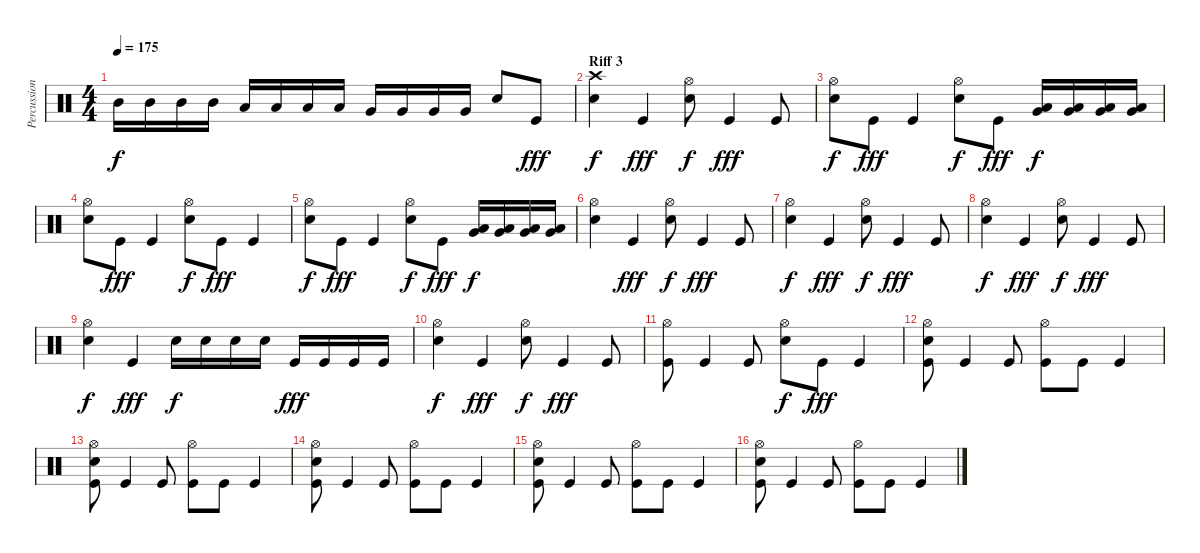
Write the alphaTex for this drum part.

\track ("Percussions" "Percussion") {instrument percussion}
\staff {score}
\articulation defaults
\ts (4 4)
\tempo 175
\clef neutral
\ks c "Mid Tom (hit)".16{dy f} "Mid Tom (hit)".16 "Mid Tom (hit)".16 "Mid Tom (hit)".16 "Low Tom (hit)".16 "Low Tom (hit)".16 "Low Tom (hit)".16 "Low Tom (hit)".16 "Very Low Tom (hit)".16 "Very Low Tom (hit)".16 "Very Low Tom (hit)".16 "Very Low Tom (hit)".16 "Electric Snare (hit)".8 "Kick (hit)".8{dy fff}
|
\section ("" "Riff 3")
("Crash high (hit)" "Electric Snare (hit)").4{dy f} "Kick (hit)".4{dy fff} ("Hi-Hat (open)" "Electric Snare (hit)").8{dy f} "Kick (hit)".4{dy fff} "Kick (hit)".8 |
("Hi-Hat (open)" "Electric Snare (hit)").8{dy f} "Kick (hit)".8{dy fff} "Kick (hit)".4 ("Hi-Hat (open)" "Electric Snare (hit)").8{dy f} "Kick (hit)".8{dy fff} ("Low Floor Tom (hit)" "Very Low Tom (hit)").16{dy f} ("Low Floor Tom (hit)" "Very Low Tom (hit)").16 ("Low Floor Tom (hit)" "Very Low Tom (hit)").16 ("Low Floor Tom (hit)" "Very Low Tom (hit)").16 |
("Hi-Hat (open)" "Electric Snare (hit)").8 "Kick (hit)".8{dy fff} "Kick (hit)".4 ("Hi-Hat (open)" "Electric Snare (hit)").8{dy f} "Kick (hit)".8{dy fff} "Kick (hit)".4 |
("Hi-Hat (open)" "Electric Snare (hit)").8{dy f} "Kick (hit)".8{dy fff} "Kick (hit)".4 ("Hi-Hat (open)" "Electric Snare (hit)").8{dy f} "Kick (hit)".8{dy fff} ("Low Floor Tom (hit)" "Very Low Tom (hit)").16{dy f} ("Low Floor Tom (hit)" "Very Low Tom (hit)").16 ("Low Floor Tom (hit)" "Very Low Tom (hit)").16 ("Low Floor Tom (hit)" "Very Low Tom (hit)").16 |
("Hi-Hat (open)" "Electric Snare (hit)").4 "Kick (hit)".4{dy fff} ("Hi-Hat (open)" "Electric Snare (hit)").8{dy f} "Kick (hit)".4{dy fff} "Kick (hit)".8 |
("Hi-Hat (open)" "Electric Snare (hit)").4{dy f} "Kick (hit)".4{dy fff} ("Hi-Hat (open)" "Electric Snare (hit)").8{dy f} "Kick (hit)".4{dy fff} "Kick (hit)".8 |
("Hi-Hat (open)" "Electric Snare (hit)").4{dy f} "Kick (hit)".4{dy fff} ("Hi-Hat (open)" "Electric Snare (hit)").8{dy f} "Kick (hit)".4{dy fff} "Kick (hit)".8 |
("Hi-Hat (open)" "Electric Snare (hit)").4{dy f} "Kick (hit)".4{dy fff} "Electric Snare (hit)".16{dy f} "Electric Snare (hit)".16 "Electric Snare (hit)".16 "Electric Snare (hit)".16 "Kick (hit)".16{dy fff} "Kick (hit)".16 "Kick (hit)".16 "Kick (hit)".16 |
("Hi-Hat (open)" "Electric Snare (hit)").4{dy f} "Kick (hit)".4{dy fff} ("Hi-Hat (open)" "Electric Snare (hit)").8{dy f} "Kick (hit)".4{dy fff} "Kick (hit)".8 |
("Hi-Hat (open)" "Kick (hit)").8 "Kick (hit)".4 "Kick (hit)".8 ("Hi-Hat (open)" "Electric Snare (hit)").8{dy f} "Kick (hit)".8{dy fff} "Kick (hit)".4 |
("Hi-Hat (open)" "Electric Snare (hit)" "Kick (hit)").8 "Kick (hit)".4 "Kick (hit)".8 ("Hi-Hat (open)" "Kick (hit)").8 "Kick (hit)".8 "Kick (hit)".4 |
("Hi-Hat (open)" "Electric Snare (hit)" "Kick (hit)").8 "Kick (hit)".4 "Kick (hit)".8 ("Hi-Hat (open)" "Kick (hit)").8 "Kick (hit)".8 "Kick (hit)".4 |
("Hi-Hat (open)" "Electric Snare (hit)" "Kick (hit)").8 "Kick (hit)".4 "Kick (hit)".8 ("Hi-Hat (open)" "Kick (hit)").8 "Kick (hit)".8 "Kick (hit)".4 |
("Hi-Hat (open)" "Electric Snare (hit)" "Kick (hit)").8 "Kick (hit)".4 "Kick (hit)".8 ("Hi-Hat (open)" "Kick (hit)").8 "Kick (hit)".8 "Kick (hit)".4 |
("Hi-Hat (open)" "Electric Snare (hit)" "Kick (hit)").8 "Kick (hit)".4 "Kick (hit)".8 ("Hi-Hat (open)" "Kick (hit)").8 "Kick (hit)".8 "Kick (hit)".4
